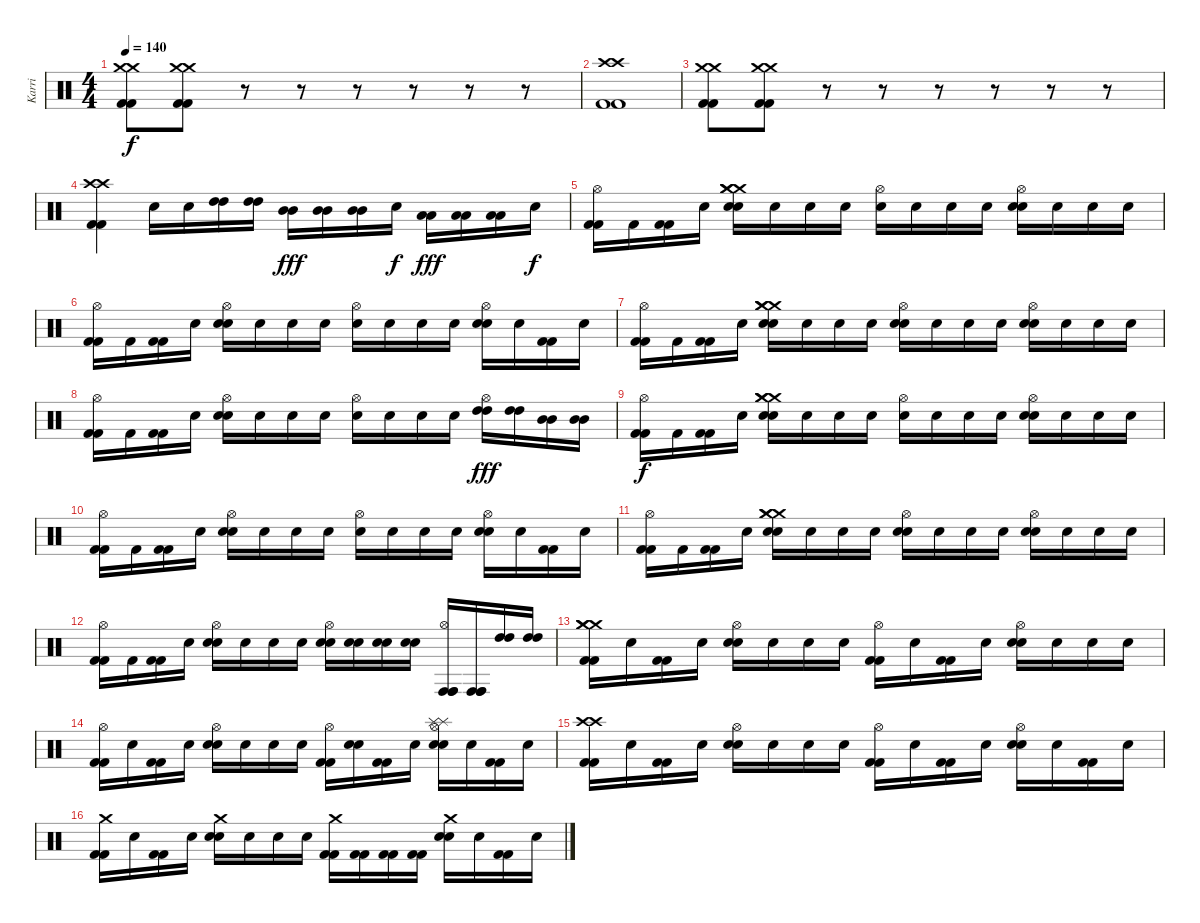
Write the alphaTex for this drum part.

\track ("Karri" "Karri") {instrument percussion}
\staff {score}
\articulation defaults
\ts (4 4)
\tempo 140
\clef neutral
\ks c
("Crash medium (hit)" "Crash medium (hit)" "Kick (hit) 2" "Kick (hit) 2").8{dy f} ("Crash medium (hit)" "Crash medium (hit)" "Kick (hit) 2" "Kick (hit) 2").8 r.8 r.8 r.8 r.8 r.8 r.8 |
("Crash high (hit)" "Crash high (hit)" "Kick (hit) 2" "Kick (hit) 2").1 |
("Crash medium (hit)" "Crash medium (hit)" "Kick (hit) 2" "Kick (hit) 2").8 ("Crash medium (hit)" "Crash medium (hit)" "Kick (hit) 2" "Kick (hit) 2").8 r.8 r.8 r.8 r.8 r.8 r.8 |
("Crash high (hit)" "Crash high (hit)" "Kick (hit) 2" "Kick (hit) 2").4 "Snare (hit)"{x}.16 "Snare (hit)"{x}.16 ("High Tom (hit)" "High Tom (hit)").16 ("High Tom (hit)" "High Tom (hit)").16 ("Mid Tom (hit)" "Mid Tom (hit)").16{dy fff} ("Mid Tom (hit)" "Mid Tom (hit)").16 ("Mid Tom (hit)" "Mid Tom (hit)").16 "Snare (hit)"{x}.16{dy f} ("Low Tom (hit)" "Low Tom (hit)").16{dy fff} ("Low Tom (hit)" "Low Tom (hit)").16 ("Low Tom (hit)" "Low Tom (hit)").16 "Snare (hit)"{x}.16{dy f} |
("Hi-Hat (open)" "Kick (hit) 2" "Kick (hit) 2").16 "Kick (hit) 2"{x}.16 ("Kick (hit) 2" "Kick (hit) 2").16 "Snare (hit)"{x}.16 ("Crash medium (hit)" "Crash medium (hit)" "Crash medium (hit)" "Snare (hit) 2" "Snare (hit) 2").16 "Snare (hit)"{x}.16 "Snare (hit)"{x}.16 "Snare (hit)"{x}.16 ("Hi-Hat (open)" "Snare (hit)"{x}).16 "Snare (hit)"{x}.16 "Snare (hit)"{x}.16 "Snare (hit)"{x}.16 ("Hi-Hat (open)" "Snare (hit) 2" "Snare (hit) 2").16 "Snare (hit)"{x}.16 "Snare (hit)"{x}.16 "Snare (hit)"{x}.16 |
("Hi-Hat (open)" "Kick (hit) 2"{x} "Kick (hit) 2"{x}).16 "Kick (hit) 2"{x}.16 ("Kick (hit) 2"{x} "Kick (hit) 2"{x}).16 "Snare (hit)"{x}.16 ("Hi-Hat (open)" "Snare (hit) 2" "Snare (hit) 2").16 "Snare (hit)"{x}.16 "Snare (hit)"{x}.16 "Snare (hit)"{x}.16 ("Hi-Hat (open)" "Snare (hit)"{x}).16 "Snare (hit)"{x}.16 "Snare (hit)"{x}.16 "Snare (hit)"{x}.16 ("Hi-Hat (open)" "Snare (hit) 2" "Snare (hit) 2").16 "Snare (hit)"{x}.16 ("Kick (hit) 2"{x} "Kick (hit) 2"{x}).16 "Snare (hit)"{x}.16 |
("Hi-Hat (open)" "Kick (hit) 2" "Kick (hit) 2").16 "Kick (hit) 2"{x}.16 ("Kick (hit) 2" "Kick (hit) 2").16 "Snare (hit)"{x}.16 ("Crash medium (hit)" "Crash medium (hit)" "Crash medium (hit)" "Snare (hit) 2" "Snare (hit) 2").16 "Snare (hit)"{x}.16 "Snare (hit)"{x}.16 "Snare (hit)"{x}.16 ("Hi-Hat (open)" "Snare (hit) 2"{x} "Snare (hit) 2"{x}).16 "Snare (hit)"{x}.16 "Snare (hit)"{x}.16 "Snare (hit)"{x}.16 ("Hi-Hat (open)" "Snare (hit) 2" "Snare (hit) 2").16 "Snare (hit)"{x}.16 "Snare (hit)"{x}.16 "Snare (hit)"{x}.16 |
("Hi-Hat (open)" "Kick (hit) 2"{x} "Kick (hit) 2"{x}).16 "Kick (hit) 2"{x}.16 ("Kick (hit) 2"{x} "Kick (hit) 2"{x}).16 "Snare (hit)"{x}.16 ("Hi-Hat (open)" "Snare (hit) 2" "Snare (hit) 2").16 "Snare (hit)"{x}.16 "Snare (hit)"{x}.16 "Snare (hit)"{x}.16 ("Hi-Hat (open)" "Snare (hit)"{x}).16 "Snare (hit)"{x}.16 "Snare (hit)"{x}.16 "Snare (hit)"{x}.16 ("Hi-Hat (open)" "High Tom (hit)" "High Tom (hit)").16{dy fff} ("High Tom (hit)" "High Tom (hit)").16 ("Mid Tom (hit)" "Mid Tom (hit)").16 ("Mid Tom (hit)" "Mid Tom (hit)").16 |
("Hi-Hat (open)" "Kick (hit) 2" "Kick (hit) 2").16{dy f} "Kick (hit) 2"{x}.16 ("Kick (hit) 2" "Kick (hit) 2").16 "Snare (hit)"{x}.16 ("Crash medium (hit)" "Crash medium (hit)" "Crash medium (hit)" "Snare (hit) 2" "Snare (hit) 2").16 "Snare (hit)"{x}.16 "Snare (hit)"{x}.16 "Snare (hit)"{x}.16 ("Hi-Hat (open)" "Snare (hit)"{x}).16 "Snare (hit)"{x}.16 "Snare (hit)"{x}.16 "Snare (hit)"{x}.16 ("Hi-Hat (open)" "Snare (hit) 2" "Snare (hit) 2").16 "Snare (hit)"{x}.16 "Snare (hit)"{x}.16 "Snare (hit)"{x}.16 |
("Hi-Hat (open)" "Kick (hit) 2"{x} "Kick (hit) 2"{x}).16 "Kick (hit) 2"{x}.16 ("Kick (hit) 2"{x} "Kick (hit) 2"{x}).16 "Snare (hit)"{x}.16 ("Hi-Hat (open)" "Snare (hit) 2" "Snare (hit) 2").16 "Snare (hit)"{x}.16 "Snare (hit)"{x}.16 "Snare (hit)"{x}.16 ("Hi-Hat (open)" "Snare (hit)"{x}).16 "Snare (hit)"{x}.16 "Snare (hit)"{x}.16 "Snare (hit)"{x}.16 ("Hi-Hat (open)" "Snare (hit) 2" "Snare (hit) 2").16 "Snare (hit)"{x}.16 ("Kick (hit) 2"{x} "Kick (hit) 2"{x}).16 "Snare (hit)"{x}.16 |
("Hi-Hat (open)" "Kick (hit) 2" "Kick (hit) 2").16 "Kick (hit) 2"{x}.16 ("Kick (hit) 2" "Kick (hit) 2").16 "Snare (hit)"{x}.16 ("Crash medium (hit)" "Crash medium (hit)" "Crash medium (hit)" "Snare (hit) 2" "Snare (hit) 2").16 "Snare (hit)"{x}.16 "Snare (hit)"{x}.16 "Snare (hit)"{x}.16 ("Hi-Hat (open)" "Snare (hit) 2"{x} "Snare (hit) 2"{x}).16 "Snare (hit)"{x}.16 "Snare (hit)"{x}.16 "Snare (hit)"{x}.16 ("Hi-Hat (open)" "Snare (hit) 2" "Snare (hit) 2").16 "Snare (hit)"{x}.16 "Snare (hit)"{x}.16 "Snare (hit)"{x}.16 |
("Hi-Hat (open)" "Kick (hit) 2"{x} "Kick (hit) 2"{x}).16 "Kick (hit) 2"{x}.16 ("Kick (hit) 2"{x} "Kick (hit) 2"{x}).16 "Snare (hit)"{x}.16 ("Hi-Hat (open)" "Snare (hit) 2" "Snare (hit) 2").16 "Snare (hit)"{x}.16 "Snare (hit)"{x}.16 "Snare (hit)"{x}.16 ("Hi-Hat (open)"{x} "Snare (hit) 2" "Snare (hit) 2").16 ("Snare (hit) 2" "Snare (hit) 2").16 ("Snare (hit) 2" "Snare (hit) 2").16 ("Snare (hit) 2" "Snare (hit) 2").16 ("Hi-Hat (open)"{x} "Conga high (hit)" "Conga high (hit)" "Conga high (hit)").16 ("Conga high (hit)" "Conga high (hit)" "Conga high (hit)").16 ("High Tom (hit)" "High Tom (hit)").16 ("High Tom (hit)" "High Tom (hit)").16 |
("Crash medium (hit)" "Crash medium (hit)" "Crash medium (hit)" "Kick (hit) 2" "Kick (hit) 2").16 "Snare (hit)"{x}.16 ("Kick (hit) 2"{x} "Kick (hit) 2"{x}).16 "Snare (hit)"{x}.16 ("Hi-Hat (open)" "Snare (hit) 2" "Snare (hit) 2").16 "Snare (hit)"{x}.16 "Snare (hit)"{x}.16 "Snare (hit)"{x}.16 ("Hi-Hat (open)" "Kick (hit) 2" "Kick (hit) 2").16 "Snare (hit)"{x}.16 ("Kick (hit) 2" "Kick (hit) 2").16 "Snare (hit)"{x}.16 ("Hi-Hat (open)" "Snare (hit) 2" "Snare (hit) 2").16 "Snare (hit)"{x}.16 "Snare (hit)"{x}.16 "Snare (hit)"{x}.16 |
("Hi-Hat (open)" "Kick (hit) 2" "Kick (hit) 2").16 "Snare (hit)"{x}.16 ("Kick (hit) 2"{x} "Kick (hit) 2"{x}).16 "Snare (hit)"{x}.16 ("Hi-Hat (open)" "Snare (hit) 2" "Snare (hit) 2").16 "Snare (hit)"{x}.16 "Snare (hit)"{x}.16 "Snare (hit)"{x}.16 ("Hi-Hat (open)" "Kick (hit) 2" "Kick (hit) 2").16 ("Snare (hit)"{x} "Snare (hit)"{x}).16 ("Kick (hit) 2" "Kick (hit) 2").16 "Snare (hit)"{x}.16 ("Hi-Hat (open)" "Splash (hit)"{x} "Splash (hit)"{x} "Snare (hit) 2" "Snare (hit) 2").16 "Snare (hit)"{x}.16 ("Kick (hit) 2" "Kick (hit) 2").16 "Snare (hit)"{x}.16 |
("Crash high (hit)" "Crash high (hit)" "Kick (hit) 2" "Kick (hit) 2").16 "Snare (hit)"{x}.16 ("Kick (hit) 2"{x} "Kick (hit) 2"{x}).16 "Snare (hit)"{x}.16 ("Hi-Hat (open)" "Snare (hit) 2" "Snare (hit) 2").16 "Snare (hit)"{x}.16 "Snare (hit)"{x}.16 "Snare (hit)"{x}.16 ("Hi-Hat (open)" "Kick (hit) 2" "Kick (hit) 2").16 "Snare (hit)"{x}.16 ("Kick (hit) 2" "Kick (hit) 2").16 "Snare (hit)"{x}.16 ("Hi-Hat (open)" "Snare (hit) 2" "Snare (hit) 2").16 "Snare (hit)"{x}.16 ("Kick (hit) 2"{x} "Kick (hit) 2"{x}).16 "Snare (hit)"{x}.16 |
("Crash medium (hit)" "Kick (hit) 2" "Kick (hit) 2").16 "Snare (hit)"{x}.16 ("Kick (hit) 2"{x} "Kick (hit) 2"{x}).16 "Snare (hit)"{x}.16 ("Crash medium (hit)" "Snare (hit) 2" "Snare (hit) 2").16 "Snare (hit)"{x}.16 "Snare (hit)"{x}.16 "Snare (hit)"{x}.16 ("Crash medium (hit)" "Kick (hit) 2" "Kick (hit) 2").16 ("Kick (hit) 2"{x} "Kick (hit) 2"{x}).16 ("Kick (hit) 2" "Kick (hit) 2").16 ("Kick (hit) 2" "Kick (hit) 2").16 ("Crash medium (hit)" "Snare (hit) 2" "Snare (hit) 2").16 "Snare (hit)"{x}.16 ("Kick (hit) 2" "Kick (hit) 2").16 "Snare (hit)"{x}.16
